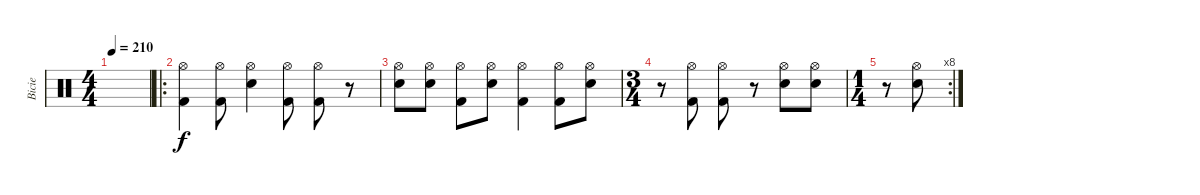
\track ("Bicie" "Bicie") {instrument percussion}
\staff {score}
\articulation defaults
\ts (4 4)
\tempo 210
\clef neutral
\ks c
|
\ro
("Hi-Hat (open)" "Kick (hit) 2").4 ("Hi-Hat (open)" "Kick (hit) 2").8 ("Hi-Hat (open)" "Snare (hit) 2").4 ("Hi-Hat (open)" "Kick (hit) 2").8 ("Hi-Hat (open)" "Kick (hit) 2").8 r.8 |
("Hi-Hat (open)" "Snare (hit) 2").8 ("Hi-Hat (open)" "Snare (hit) 2").8 ("Hi-Hat (open)" "Kick (hit) 2").8 ("Hi-Hat (open)" "Snare (hit) 2").8 ("Hi-Hat (open)" "Kick (hit) 2").4 ("Hi-Hat (open)" "Kick (hit) 2").8 ("Hi-Hat (open)" "Snare (hit) 2").8 |
\ts (3 4)
r.8 ("Hi-Hat (open)" "Kick (hit) 2").8 ("Hi-Hat (open)" "Kick (hit) 2").8 r.8 ("Hi-Hat (open)" "Snare (hit) 2").8 ("Hi-Hat (open)" "Snare (hit) 2").8 |
\rc 8
\ts (1 4)
r.8 ("Hi-Hat (open)" "Snare (hit) 2").8
